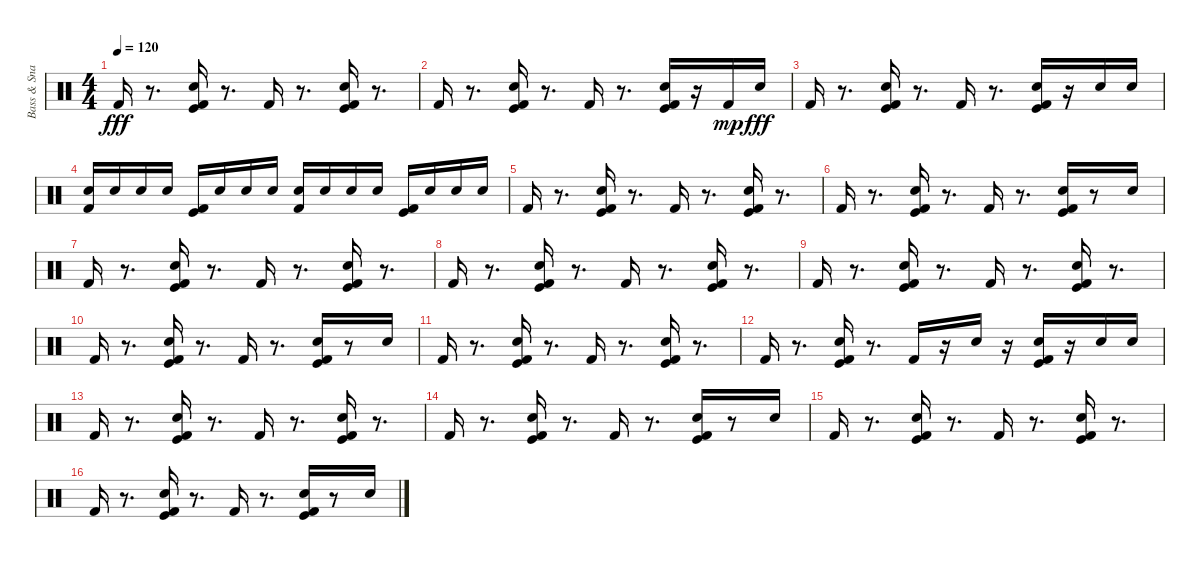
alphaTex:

\track ("Bass & Snare Drums" "Bass & Sna") {instrument percussion}
\staff {score}
\articulation defaults
\ts (4 4)
\tempo 120
\clef neutral
\ks c "Kick (hit) 2".16{dy fff}
r.8{d} ("Electric Snare (hit)" "Kick (hit) 2" "Kick (hit)").16 r.8{d} "Kick (hit) 2".16 r.8{d} ("Electric Snare (hit)" "Kick (hit)" "Kick (hit) 2").16 r.8{d} |
"Kick (hit) 2".16 r.8{d} ("Electric Snare (hit)" "Kick (hit) 2" "Kick (hit)").16 r.8{d} "Kick (hit) 2".16 r.8{d} ("Electric Snare (hit)" "Kick (hit)" "Kick (hit) 2").16 r.16 "Kick (hit) 2".16{dy mp} "Electric Snare (hit)".16{dy fff} |
"Kick (hit) 2".16 r.8{d} ("Electric Snare (hit)" "Kick (hit) 2" "Kick (hit)").16 r.8{d} "Kick (hit) 2".16 r.8{d} ("Electric Snare (hit)" "Kick (hit) 2" "Kick (hit)").16 r.16 "Electric Snare (hit)".16 "Electric Snare (hit)".16 |
("Electric Snare (hit)" "Kick (hit) 2").16 "Electric Snare (hit)".16 "Electric Snare (hit)".16 "Electric Snare (hit)".16 ("Kick (hit) 2" "Kick (hit)").16 "Electric Snare (hit)".16 "Electric Snare (hit)".16 "Electric Snare (hit)".16 ("Electric Snare (hit)" "Kick (hit) 2").16 "Electric Snare (hit)".16 "Electric Snare (hit)".16 "Electric Snare (hit)".16 ("Kick (hit) 2" "Kick (hit)").16 "Electric Snare (hit)".16 "Electric Snare (hit)".16 "Electric Snare (hit)".16 |
"Kick (hit) 2".16 r.8{d} ("Electric Snare (hit)" "Kick (hit)" "Kick (hit) 2").16 r.8{d} "Kick (hit) 2".16 r.8{d} ("Electric Snare (hit)" "Kick (hit)" "Kick (hit) 2").16 r.8{d} |
"Kick (hit) 2".16 r.8{d} ("Electric Snare (hit)" "Kick (hit) 2" "Kick (hit)").16 r.8{d} "Kick (hit) 2".16 r.8{d} ("Electric Snare (hit)" "Kick (hit)" "Kick (hit) 2").16 r.8 "Electric Snare (hit)".16 |
"Kick (hit) 2".16 r.8{d} ("Electric Snare (hit)" "Kick (hit)" "Kick (hit) 2").16 r.8{d} "Kick (hit) 2".16 r.8{d} ("Electric Snare (hit)" "Kick (hit)" "Kick (hit) 2").16 r.8{d} |
"Kick (hit) 2".16 r.8{d} ("Electric Snare (hit)" "Kick (hit) 2" "Kick (hit)").16 r.8{d} "Kick (hit) 2".16 r.8{d} ("Electric Snare (hit)" "Kick (hit)" "Kick (hit) 2").16 r.8{d} |
"Kick (hit) 2".16 r.8{d} ("Electric Snare (hit)" "Kick (hit)" "Kick (hit) 2").16 r.8{d} "Kick (hit) 2".16 r.8{d} ("Electric Snare (hit)" "Kick (hit)" "Kick (hit) 2").16 r.8{d} |
"Kick (hit) 2".16 r.8{d} ("Electric Snare (hit)" "Kick (hit) 2" "Kick (hit)").16 r.8{d} "Kick (hit) 2".16 r.8{d} ("Electric Snare (hit)" "Kick (hit)" "Kick (hit) 2").16 r.8 "Electric Snare (hit)".16 |
"Kick (hit) 2".16 r.8{d} ("Electric Snare (hit)" "Kick (hit)" "Kick (hit) 2").16 r.8{d} "Kick (hit) 2".16 r.8{d} ("Electric Snare (hit)" "Kick (hit)" "Kick (hit) 2").16 r.8{d} |
"Kick (hit) 2".16 r.8{d} ("Electric Snare (hit)" "Kick (hit) 2" "Kick (hit)").16 r.8{d} "Kick (hit) 2".16 r.16 "Electric Snare (hit)".16 r.16 ("Electric Snare (hit)" "Kick (hit)" "Kick (hit) 2").16 r.16 "Electric Snare (hit)".16 "Electric Snare (hit)".16 |
"Kick (hit) 2".16 r.8{d} ("Electric Snare (hit)" "Kick (hit)" "Kick (hit) 2").16 r.8{d} "Kick (hit) 2".16 r.8{d} ("Electric Snare (hit)" "Kick (hit)" "Kick (hit) 2").16 r.8{d} |
"Kick (hit) 2".16 r.8{d} ("Electric Snare (hit)" "Kick (hit) 2" "Kick (hit)").16 r.8{d} "Kick (hit) 2".16 r.8{d} ("Electric Snare (hit)" "Kick (hit)" "Kick (hit) 2").16 r.8 "Electric Snare (hit)".16 |
"Kick (hit) 2".16 r.8{d} ("Electric Snare (hit)" "Kick (hit)" "Kick (hit) 2").16 r.8{d} "Kick (hit) 2".16 r.8{d} ("Electric Snare (hit)" "Kick (hit)" "Kick (hit) 2").16 r.8{d} |
"Kick (hit) 2".16 r.8{d} ("Electric Snare (hit)" "Kick (hit) 2" "Kick (hit)").16 r.8{d} "Kick (hit) 2".16 r.8{d} ("Electric Snare (hit)" "Kick (hit)" "Kick (hit) 2").16 r.8 "Electric Snare (hit)".16
